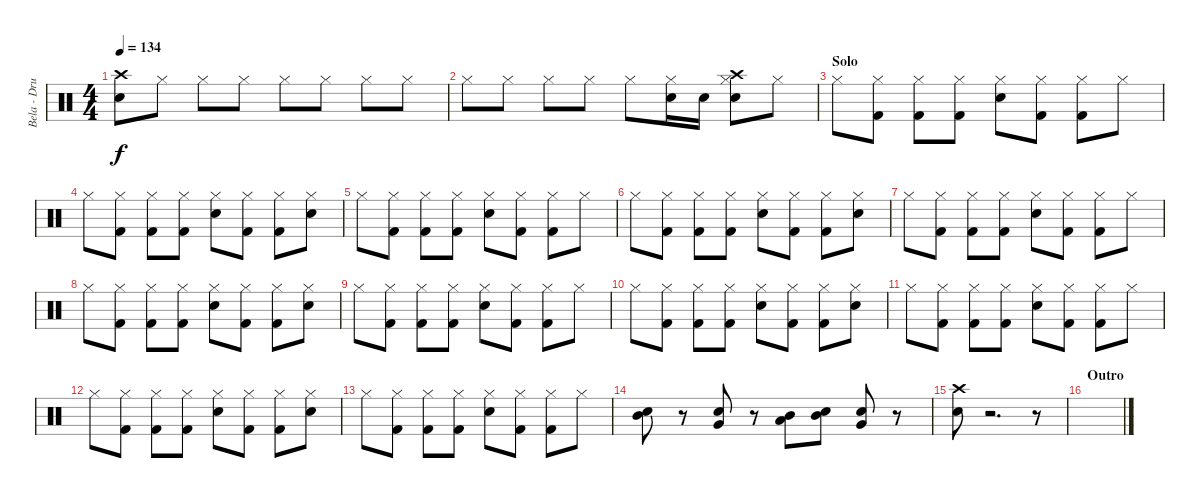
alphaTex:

\track ("Bela - Drums" "Bela - Dru") {instrument percussion}
\staff {score}
\articulation defaults
\ts (4 4)
\tempo 134
\clef neutral
\ks c
("Crash high (hit)" "Electric Snare (hit)").8{dy f} "Hi-Hat (closed)".8 "Hi-Hat (closed)".8 "Hi-Hat (closed)".8 "Hi-Hat (closed)".8 "Hi-Hat (closed)".8 "Hi-Hat (closed)".8 "Hi-Hat (closed)".8 |
"Hi-Hat (closed)".8 "Hi-Hat (closed)".8 "Hi-Hat (closed)".8 "Hi-Hat (closed)".8 "Hi-Hat (closed)".8 ("Hi-Hat (closed)" "Electric Snare (hit)").16 "Electric Snare (hit)".16 ("Hi-Hat (closed)" "Crash high (hit)" "Electric Snare (hit)").8 "Hi-Hat (closed)".8 |
\section ("" "Solo")
"Hi-Hat (closed)".8 ("Hi-Hat (closed)" "Kick (hit) 2").8 ("Hi-Hat (closed)" "Kick (hit) 2").8 ("Hi-Hat (closed)" "Kick (hit) 2").8 ("Hi-Hat (closed)" "Electric Snare (hit)").8 ("Hi-Hat (closed)" "Kick (hit) 2").8 ("Hi-Hat (closed)" "Kick (hit) 2").8 "Hi-Hat (closed)".8 |
"Hi-Hat (closed)".8 ("Hi-Hat (closed)" "Kick (hit) 2").8 ("Hi-Hat (closed)" "Kick (hit) 2").8 ("Hi-Hat (closed)" "Kick (hit) 2").8 ("Hi-Hat (closed)" "Electric Snare (hit)").8 ("Hi-Hat (closed)" "Kick (hit) 2").8 ("Hi-Hat (closed)" "Kick (hit) 2").8 ("Hi-Hat (closed)" "Electric Snare (hit)").8 |
"Hi-Hat (closed)".8 ("Hi-Hat (closed)" "Kick (hit) 2").8 ("Hi-Hat (closed)" "Kick (hit) 2").8 ("Hi-Hat (closed)" "Kick (hit) 2").8 ("Hi-Hat (closed)" "Electric Snare (hit)").8 ("Hi-Hat (closed)" "Kick (hit) 2").8 ("Hi-Hat (closed)" "Kick (hit) 2").8 "Hi-Hat (closed)".8 |
"Hi-Hat (closed)".8 ("Hi-Hat (closed)" "Kick (hit) 2").8 ("Hi-Hat (closed)" "Kick (hit) 2").8 ("Hi-Hat (closed)" "Kick (hit) 2").8 ("Hi-Hat (closed)" "Electric Snare (hit)").8 ("Hi-Hat (closed)" "Kick (hit) 2").8 ("Hi-Hat (closed)" "Kick (hit) 2").8 ("Hi-Hat (closed)" "Electric Snare (hit)").8 |
"Hi-Hat (closed)".8 ("Hi-Hat (closed)" "Kick (hit) 2").8 ("Hi-Hat (closed)" "Kick (hit) 2").8 ("Hi-Hat (closed)" "Kick (hit) 2").8 ("Hi-Hat (closed)" "Electric Snare (hit)").8 ("Hi-Hat (closed)" "Kick (hit) 2").8 ("Hi-Hat (closed)" "Kick (hit) 2").8 "Hi-Hat (closed)".8 |
"Hi-Hat (closed)".8 ("Hi-Hat (closed)" "Kick (hit) 2").8 ("Hi-Hat (closed)" "Kick (hit) 2").8 ("Hi-Hat (closed)" "Kick (hit) 2").8 ("Hi-Hat (closed)" "Electric Snare (hit)").8 ("Hi-Hat (closed)" "Kick (hit) 2").8 ("Hi-Hat (closed)" "Kick (hit) 2").8 ("Hi-Hat (closed)" "Electric Snare (hit)").8 |
"Hi-Hat (closed)".8 ("Hi-Hat (closed)" "Kick (hit) 2").8 ("Hi-Hat (closed)" "Kick (hit) 2").8 ("Hi-Hat (closed)" "Kick (hit) 2").8 ("Hi-Hat (closed)" "Electric Snare (hit)").8 ("Hi-Hat (closed)" "Kick (hit) 2").8 ("Hi-Hat (closed)" "Kick (hit) 2").8 "Hi-Hat (closed)".8 |
"Hi-Hat (closed)".8 ("Hi-Hat (closed)" "Kick (hit) 2").8 ("Hi-Hat (closed)" "Kick (hit) 2").8 ("Hi-Hat (closed)" "Kick (hit) 2").8 ("Hi-Hat (closed)" "Electric Snare (hit)").8 ("Hi-Hat (closed)" "Kick (hit) 2").8 ("Hi-Hat (closed)" "Kick (hit) 2").8 ("Hi-Hat (closed)" "Electric Snare (hit)").8 |
"Hi-Hat (closed)".8 ("Hi-Hat (closed)" "Kick (hit) 2").8 ("Hi-Hat (closed)" "Kick (hit) 2").8 ("Hi-Hat (closed)" "Kick (hit) 2").8 ("Hi-Hat (closed)" "Electric Snare (hit)").8 ("Hi-Hat (closed)" "Kick (hit) 2").8 ("Hi-Hat (closed)" "Kick (hit) 2").8 "Hi-Hat (closed)".8 |
"Hi-Hat (closed)".8 ("Hi-Hat (closed)" "Kick (hit) 2").8 ("Hi-Hat (closed)" "Kick (hit) 2").8 ("Hi-Hat (closed)" "Kick (hit) 2").8 ("Hi-Hat (closed)" "Electric Snare (hit)").8 ("Hi-Hat (closed)" "Kick (hit) 2").8 ("Hi-Hat (closed)" "Kick (hit) 2").8 ("Hi-Hat (closed)" "Electric Snare (hit)").8 |
"Hi-Hat (closed)".8 ("Hi-Hat (closed)" "Kick (hit) 2").8 ("Hi-Hat (closed)" "Kick (hit) 2").8 ("Hi-Hat (closed)" "Kick (hit) 2").8 ("Hi-Hat (closed)" "Electric Snare (hit)").8 ("Hi-Hat (closed)" "Kick (hit) 2").8 ("Hi-Hat (closed)" "Kick (hit) 2").8 "Hi-Hat (closed)".8 |
("Electric Snare (hit)" "Mid Tom (hit)").8 r.8 ("Electric Snare (hit)" "Very Low Tom (hit)").8 r.8 ("Low Tom (hit)" "Mid Tom (hit)").8 ("Electric Snare (hit)" "Mid Tom (hit)").8 ("Electric Snare (hit)" "Very Low Tom (hit)").8 r.8 |
("Crash high (hit)" "Electric Snare (hit)").8 r.2{d} r.8 |
\section ("" "Outro")
